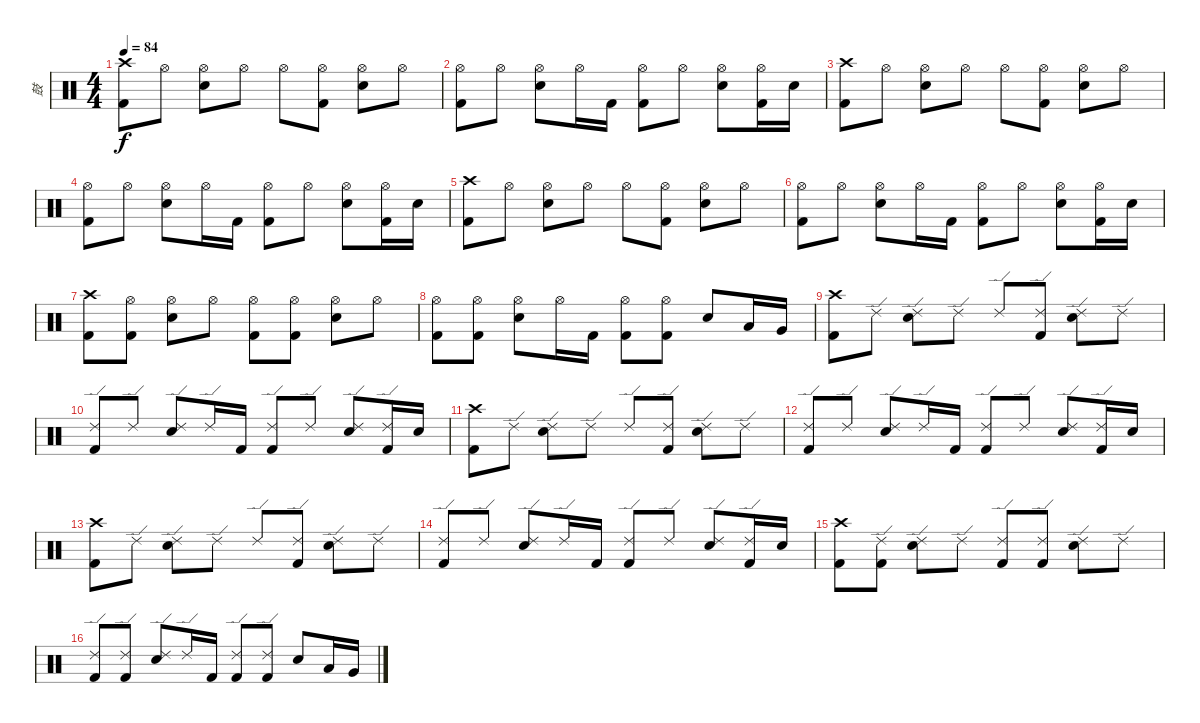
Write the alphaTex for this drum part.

\track ("鼓" "鼓") {instrument percussion}
\staff {score}
\articulation defaults
\ts (4 4)
\tempo 84
\clef neutral
\ks c
("Crash high (hit)" "Kick (hit) 2").8{dy f} "Hi-Hat (open)".8 ("Hi-Hat (open)" "Electric Snare (hit)").8 "Hi-Hat (open)".8 "Hi-Hat (open)".8 ("Hi-Hat (open)" "Kick (hit) 2").8 ("Hi-Hat (open)" "Electric Snare (hit)").8 "Hi-Hat (open)".8 |
("Hi-Hat (open)" "Kick (hit) 2").8 "Hi-Hat (open)".8 ("Hi-Hat (open)" "Electric Snare (hit)").8 "Hi-Hat (open)".16 "Kick (hit) 2".16 ("Hi-Hat (open)" "Kick (hit) 2").8 "Hi-Hat (open)".8 ("Hi-Hat (open)" "Electric Snare (hit)").8 ("Hi-Hat (open)" "Kick (hit) 2").16 "Electric Snare (hit)".16 |
("Crash high (hit)" "Kick (hit) 2").8 "Hi-Hat (open)".8 ("Hi-Hat (open)" "Electric Snare (hit)").8 "Hi-Hat (open)".8 "Hi-Hat (open)".8 ("Hi-Hat (open)" "Kick (hit) 2").8 ("Hi-Hat (open)" "Electric Snare (hit)").8 "Hi-Hat (open)".8 |
("Hi-Hat (open)" "Kick (hit) 2").8 "Hi-Hat (open)".8 ("Hi-Hat (open)" "Electric Snare (hit)").8 "Hi-Hat (open)".16 "Kick (hit) 2".16 ("Hi-Hat (open)" "Kick (hit) 2").8 "Hi-Hat (open)".8 ("Hi-Hat (open)" "Electric Snare (hit)").8 ("Hi-Hat (open)" "Kick (hit) 2").16 "Electric Snare (hit)".16 |
("Crash high (hit)" "Kick (hit) 2").8 "Hi-Hat (open)".8 ("Hi-Hat (open)" "Electric Snare (hit)").8 "Hi-Hat (open)".8 "Hi-Hat (open)".8 ("Hi-Hat (open)" "Kick (hit) 2").8 ("Hi-Hat (open)" "Electric Snare (hit)").8 "Hi-Hat (open)".8 |
("Hi-Hat (open)" "Kick (hit) 2").8 "Hi-Hat (open)".8 ("Hi-Hat (open)" "Electric Snare (hit)").8 "Hi-Hat (open)".16 "Kick (hit) 2".16 ("Hi-Hat (open)" "Kick (hit) 2").8 "Hi-Hat (open)".8 ("Hi-Hat (open)" "Electric Snare (hit)").8 ("Hi-Hat (open)" "Kick (hit) 2").16 "Electric Snare (hit)".16 |
("Crash high (hit)" "Kick (hit) 2").8 ("Hi-Hat (open)" "Kick (hit) 2").8 ("Hi-Hat (open)" "Electric Snare (hit)").8 "Hi-Hat (open)".8 ("Hi-Hat (open)" "Kick (hit) 2").8 ("Hi-Hat (open)" "Kick (hit) 2").8 ("Hi-Hat (open)" "Electric Snare (hit)").8 "Hi-Hat (open)".8 |
("Hi-Hat (open)" "Kick (hit) 2").8 ("Hi-Hat (open)" "Kick (hit) 2").8 ("Hi-Hat (open)" "Electric Snare (hit)").8 "Hi-Hat (open)".16 "Kick (hit) 2".16 ("Hi-Hat (open)" "Kick (hit) 2").8 ("Hi-Hat (open)" "Kick (hit) 2").8 "Electric Snare (hit)".8 "Low Tom (hit)".16 "Very Low Tom (hit)".16 |
("Crash high (hit)" "Kick (hit) 2").8 "Ride (edge) 2".8 ("Ride (edge) 2" "Electric Snare (hit)").8 "Ride (edge) 2".8 "Ride (edge) 2".8 ("Ride (edge) 2" "Kick (hit) 2").8 ("Ride (edge) 2" "Electric Snare (hit)").8 "Ride (edge) 2".8 |
("Ride (edge) 2" "Kick (hit) 2").8 "Ride (edge) 2".8 ("Ride (edge) 2" "Electric Snare (hit)").8 "Ride (edge) 2".16 "Kick (hit) 2".16 ("Ride (edge) 2" "Kick (hit) 2").8 "Ride (edge) 2".8 ("Ride (edge) 2" "Electric Snare (hit)").8 ("Ride (edge) 2" "Kick (hit) 2").16 "Electric Snare (hit)".16 |
("Crash high (hit)" "Kick (hit) 2").8 "Ride (edge) 2".8 ("Ride (edge) 2" "Electric Snare (hit)").8 "Ride (edge) 2".8 "Ride (edge) 2".8 ("Ride (edge) 2" "Kick (hit) 2").8 ("Ride (edge) 2" "Electric Snare (hit)").8 "Ride (edge) 2".8 |
("Ride (edge) 2" "Kick (hit) 2").8 "Ride (edge) 2".8 ("Ride (edge) 2" "Electric Snare (hit)").8 "Ride (edge) 2".16 "Kick (hit) 2".16 ("Ride (edge) 2" "Kick (hit) 2").8 "Ride (edge) 2".8 ("Ride (edge) 2" "Electric Snare (hit)").8 ("Ride (edge) 2" "Kick (hit) 2").16 "Electric Snare (hit)".16 |
("Crash high (hit)" "Kick (hit) 2").8 "Ride (edge) 2".8 ("Ride (edge) 2" "Electric Snare (hit)").8 "Ride (edge) 2".8 "Ride (edge) 2".8 ("Ride (edge) 2" "Kick (hit) 2").8 ("Ride (edge) 2" "Electric Snare (hit)").8 "Ride (edge) 2".8 |
("Ride (edge) 2" "Kick (hit) 2").8 "Ride (edge) 2".8 ("Ride (edge) 2" "Electric Snare (hit)").8 "Ride (edge) 2".16 "Kick (hit) 2".16 ("Ride (edge) 2" "Kick (hit) 2").8 "Ride (edge) 2".8 ("Ride (edge) 2" "Electric Snare (hit)").8 ("Ride (edge) 2" "Kick (hit) 2").16 "Electric Snare (hit)".16 |
("Crash high (hit)" "Kick (hit) 2").8 ("Ride (edge) 2" "Kick (hit) 2").8 ("Ride (edge) 2" "Electric Snare (hit)").8 "Ride (edge) 2".8 ("Ride (edge) 2" "Kick (hit) 2").8 ("Ride (edge) 2" "Kick (hit) 2").8 ("Ride (edge) 2" "Electric Snare (hit)").8 "Ride (edge) 2".8 |
("Ride (edge) 2" "Kick (hit) 2").8 ("Ride (edge) 2" "Kick (hit) 2").8 ("Ride (edge) 2" "Electric Snare (hit)").8 "Ride (edge) 2".16 "Kick (hit) 2".16 ("Ride (edge) 2" "Kick (hit) 2").8 ("Ride (edge) 2" "Kick (hit) 2").8 "Electric Snare (hit)".8 "Low Tom (hit)".16 "Very Low Tom (hit)".16
